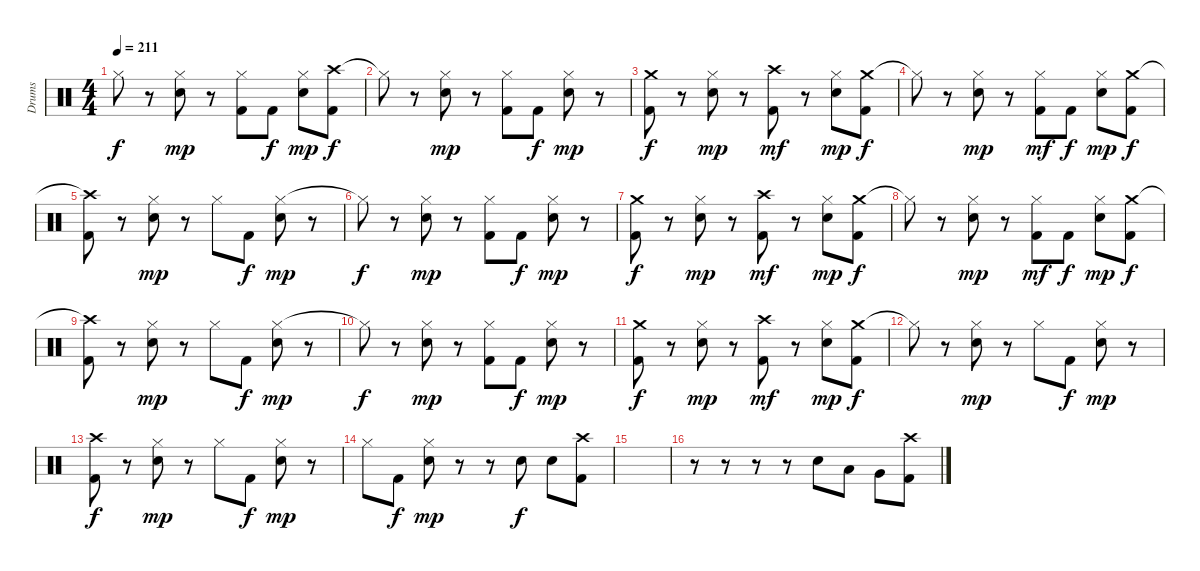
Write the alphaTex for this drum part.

\track ("Drums" "Drums") {instrument percussion}
\staff {score}
\articulation defaults
\ts (4 4)
\tempo 211
\clef neutral
\ks c "Hi-Hat (closed)"{t}.8{dy f}
r.8 ("Hi-Hat (closed)" "Snare (hit) 2").8{dy mp} r.8 ("Hi-Hat (closed)" "Kick (hit) 2").8 "Kick (hit) 2".8{dy f} ("Hi-Hat (closed)" "Snare (hit) 2").8{dy mp} ("Crash high (hit)" "Kick (hit) 2").8{dy f} |
"Hi-Hat (closed)"{t}.8 r.8 ("Hi-Hat (closed)" "Snare (hit) 2").8{dy mp} r.8 ("Hi-Hat (closed)" "Kick (hit) 2").8 "Kick (hit) 2".8{dy f} ("Hi-Hat (closed)" "Snare (hit) 2").8{dy mp} r.8 |
("Crash medium (hit)" "Kick (hit) 2").8{dy f} r.8 ("Hi-Hat (closed)" "Snare (hit) 2").8{dy mp} r.8 ("Crash high (hit)" "Kick (hit) 2").8{dy mf} r.8 ("Hi-Hat (closed)" "Snare (hit) 2").8{dy mp} ("Crash medium (hit)" "Kick (hit) 2").8{dy f} |
"Hi-Hat (closed)"{t}.8 r.8 ("Hi-Hat (closed)" "Snare (hit) 2").8{dy mp} r.8 ("Hi-Hat (closed)" "Kick (hit) 2").8{dy mf} "Kick (hit) 2".8{dy f} ("Hi-Hat (closed)" "Snare (hit) 2").8{dy mp} ("Crash medium (hit)" "Kick (hit) 2").8{dy f} |
("Crash high (hit)"{t} "Kick (hit) 2").8 r.8 ("Hi-Hat (closed)" "Snare (hit) 2").8{dy mp} r.8 "Hi-Hat (closed)".8 "Kick (hit) 2".8{dy f} ("Hi-Hat (closed)" "Snare (hit) 2").8{dy mp} r.8 |
"Hi-Hat (closed)"{t}.8{dy f} r.8 ("Hi-Hat (closed)" "Snare (hit) 2").8{dy mp} r.8 ("Hi-Hat (closed)" "Kick (hit) 2").8 "Kick (hit) 2".8{dy f} ("Hi-Hat (closed)" "Snare (hit) 2").8{dy mp} r.8 |
("Crash medium (hit)" "Kick (hit) 2").8{dy f} r.8 ("Hi-Hat (closed)" "Snare (hit) 2").8{dy mp} r.8 ("Crash high (hit)" "Kick (hit) 2").8{dy mf} r.8 ("Hi-Hat (closed)" "Snare (hit) 2").8{dy mp} ("Crash medium (hit)" "Kick (hit) 2").8{dy f} |
"Hi-Hat (closed)"{t}.8 r.8 ("Hi-Hat (closed)" "Snare (hit) 2").8{dy mp} r.8 ("Hi-Hat (closed)" "Kick (hit) 2").8{dy mf} "Kick (hit) 2".8{dy f} ("Hi-Hat (closed)" "Snare (hit) 2").8{dy mp} ("Crash medium (hit)" "Kick (hit) 2").8{dy f} |
("Crash high (hit)"{t} "Kick (hit) 2").8 r.8 ("Hi-Hat (closed)" "Snare (hit) 2").8{dy mp} r.8 "Hi-Hat (closed)".8 "Kick (hit) 2".8{dy f} ("Hi-Hat (closed)" "Snare (hit) 2").8{dy mp} r.8 |
"Hi-Hat (closed)"{t}.8{dy f} r.8 ("Hi-Hat (closed)" "Snare (hit) 2").8{dy mp} r.8 ("Hi-Hat (closed)" "Kick (hit) 2").8 "Kick (hit) 2".8{dy f} ("Hi-Hat (closed)" "Snare (hit) 2").8{dy mp} r.8 |
("Crash medium (hit)" "Kick (hit) 2").8{dy f} r.8 ("Hi-Hat (closed)" "Snare (hit) 2").8{dy mp} r.8 ("Crash high (hit)" "Kick (hit) 2").8{dy mf} r.8 ("Hi-Hat (closed)" "Snare (hit) 2").8{dy mp} ("Crash medium (hit)" "Kick (hit) 2").8{dy f} |
"Hi-Hat (closed)"{t}.8 r.8 ("Hi-Hat (closed)" "Snare (hit) 2").8{dy mp} r.8 "Hi-Hat (closed)".8 "Kick (hit) 2".8{dy f} ("Hi-Hat (closed)" "Snare (hit) 2").8{dy mp} r.8 |
("Crash high (hit)" "Kick (hit) 2").8{dy f} r.8 ("Hi-Hat (closed)" "Snare (hit) 2").8{dy mp} r.8 "Hi-Hat (closed)".8 "Kick (hit) 2".8{dy f} ("Hi-Hat (closed)" "Snare (hit) 2").8{dy mp} r.8 |
"Hi-Hat (closed)".8 "Kick (hit) 2".8{dy f} ("Hi-Hat (closed)" "Snare (hit) 2").8{dy mp} r.8 r.8 "Snare (hit) 2".8{dy f} "Snare (hit) 2".8 ("Crash high (hit)" "Kick (hit) 2").8 |
|
r.8 r.8 r.8 r.8 "Snare (hit) 2".8 "Low Tom (hit)".8 "Very Low Tom (hit)".8 ("Crash high (hit)" "Kick (hit) 2").8
